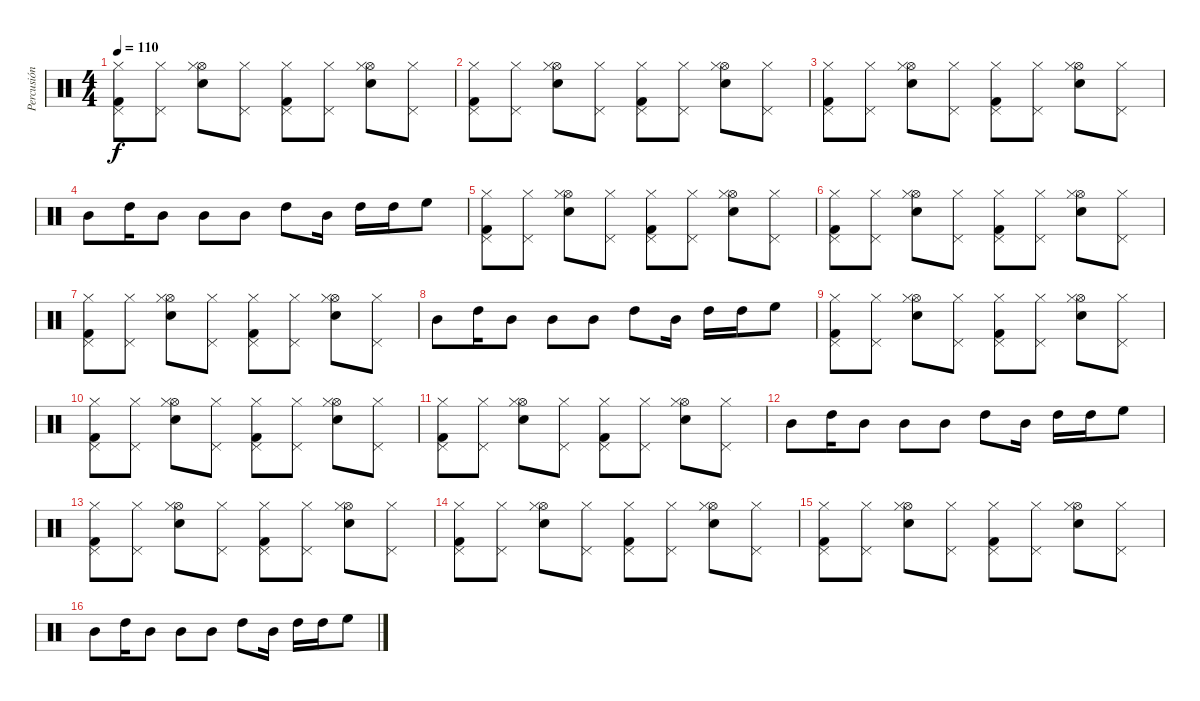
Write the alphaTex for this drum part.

\track ("Percusión" "Percusión") {instrument percussion}
\staff {score}
\articulation defaults
\ts (4 4)
\tempo 110
\clef neutral
\ks c
("Pedal Hi-Hat (hit)" "Hi-Hat (closed)" "Kick (hit) 2").8{dy f} ("Pedal Hi-Hat (hit)" "Hi-Hat (closed)").8 ("Hi-Hat (open)" "Hi-Hat (closed)" "Electric Snare (hit)").8 ("Pedal Hi-Hat (hit)" "Hi-Hat (closed)").8 ("Pedal Hi-Hat (hit)" "Hi-Hat (closed)" "Kick (hit) 2").8 ("Pedal Hi-Hat (hit)" "Hi-Hat (closed)").8 ("Hi-Hat (open)" "Hi-Hat (closed)" "Electric Snare (hit)").8 ("Pedal Hi-Hat (hit)" "Hi-Hat (closed)").8 |
("Pedal Hi-Hat (hit)" "Hi-Hat (closed)" "Kick (hit) 2").8 ("Pedal Hi-Hat (hit)" "Hi-Hat (closed)").8 ("Hi-Hat (open)" "Hi-Hat (closed)" "Electric Snare (hit)").8 ("Pedal Hi-Hat (hit)" "Hi-Hat (closed)").8 ("Pedal Hi-Hat (hit)" "Hi-Hat (closed)" "Kick (hit) 2").8 ("Pedal Hi-Hat (hit)" "Hi-Hat (closed)").8 ("Hi-Hat (open)" "Hi-Hat (closed)" "Electric Snare (hit)").8 ("Pedal Hi-Hat (hit)" "Hi-Hat (closed)").8 |
("Pedal Hi-Hat (hit)" "Hi-Hat (closed)" "Kick (hit) 2").8 ("Pedal Hi-Hat (hit)" "Hi-Hat (closed)").8 ("Hi-Hat (open)" "Hi-Hat (closed)" "Electric Snare (hit)").8 ("Pedal Hi-Hat (hit)" "Hi-Hat (closed)").8 ("Pedal Hi-Hat (hit)" "Hi-Hat (closed)" "Kick (hit) 2").8 ("Pedal Hi-Hat (hit)" "Hi-Hat (closed)").8 ("Hi-Hat (open)" "Hi-Hat (closed)" "Electric Snare (hit)").8 ("Pedal Hi-Hat (hit)" "Hi-Hat (closed)").8 |
"Mid Tom (hit)".8 "High Tom (hit)".16 "Mid Tom (hit)".8 "Mid Tom (hit)".8 "Mid Tom (hit)".8 "High Tom (hit)".8 "Mid Tom (hit)".16 "High Tom (hit)".16 "High Tom (hit)".16 "High Floor Tom (hit)".8 |
("Pedal Hi-Hat (hit)" "Hi-Hat (closed)" "Kick (hit) 2").8 ("Pedal Hi-Hat (hit)" "Hi-Hat (closed)").8 ("Hi-Hat (open)" "Hi-Hat (closed)" "Electric Snare (hit)").8 ("Pedal Hi-Hat (hit)" "Hi-Hat (closed)").8 ("Pedal Hi-Hat (hit)" "Hi-Hat (closed)" "Kick (hit) 2").8 ("Pedal Hi-Hat (hit)" "Hi-Hat (closed)").8 ("Hi-Hat (open)" "Hi-Hat (closed)" "Electric Snare (hit)").8 ("Pedal Hi-Hat (hit)" "Hi-Hat (closed)").8 |
("Pedal Hi-Hat (hit)" "Hi-Hat (closed)" "Kick (hit) 2").8 ("Pedal Hi-Hat (hit)" "Hi-Hat (closed)").8 ("Hi-Hat (open)" "Hi-Hat (closed)" "Electric Snare (hit)").8 ("Pedal Hi-Hat (hit)" "Hi-Hat (closed)").8 ("Pedal Hi-Hat (hit)" "Hi-Hat (closed)" "Kick (hit) 2").8 ("Pedal Hi-Hat (hit)" "Hi-Hat (closed)").8 ("Hi-Hat (open)" "Hi-Hat (closed)" "Electric Snare (hit)").8 ("Pedal Hi-Hat (hit)" "Hi-Hat (closed)").8 |
("Pedal Hi-Hat (hit)" "Hi-Hat (closed)" "Kick (hit) 2").8 ("Pedal Hi-Hat (hit)" "Hi-Hat (closed)").8 ("Hi-Hat (open)" "Hi-Hat (closed)" "Electric Snare (hit)").8 ("Pedal Hi-Hat (hit)" "Hi-Hat (closed)").8 ("Pedal Hi-Hat (hit)" "Hi-Hat (closed)" "Kick (hit) 2").8 ("Pedal Hi-Hat (hit)" "Hi-Hat (closed)").8 ("Hi-Hat (open)" "Hi-Hat (closed)" "Electric Snare (hit)").8 ("Pedal Hi-Hat (hit)" "Hi-Hat (closed)").8 |
"Mid Tom (hit)".8 "High Tom (hit)".16 "Mid Tom (hit)".8 "Mid Tom (hit)".8 "Mid Tom (hit)".8 "High Tom (hit)".8 "Mid Tom (hit)".16 "High Tom (hit)".16 "High Tom (hit)".16 "High Floor Tom (hit)".8 |
("Pedal Hi-Hat (hit)" "Hi-Hat (closed)" "Kick (hit) 2").8 ("Pedal Hi-Hat (hit)" "Hi-Hat (closed)").8 ("Hi-Hat (open)" "Hi-Hat (closed)" "Electric Snare (hit)").8 ("Pedal Hi-Hat (hit)" "Hi-Hat (closed)").8 ("Pedal Hi-Hat (hit)" "Hi-Hat (closed)" "Kick (hit) 2").8 ("Pedal Hi-Hat (hit)" "Hi-Hat (closed)").8 ("Hi-Hat (open)" "Hi-Hat (closed)" "Electric Snare (hit)").8 ("Pedal Hi-Hat (hit)" "Hi-Hat (closed)").8 |
("Pedal Hi-Hat (hit)" "Hi-Hat (closed)" "Kick (hit) 2").8 ("Pedal Hi-Hat (hit)" "Hi-Hat (closed)").8 ("Hi-Hat (open)" "Hi-Hat (closed)" "Electric Snare (hit)").8 ("Pedal Hi-Hat (hit)" "Hi-Hat (closed)").8 ("Pedal Hi-Hat (hit)" "Hi-Hat (closed)" "Kick (hit) 2").8 ("Pedal Hi-Hat (hit)" "Hi-Hat (closed)").8 ("Hi-Hat (open)" "Hi-Hat (closed)" "Electric Snare (hit)").8 ("Pedal Hi-Hat (hit)" "Hi-Hat (closed)").8 |
("Pedal Hi-Hat (hit)" "Hi-Hat (closed)" "Kick (hit) 2").8 ("Pedal Hi-Hat (hit)" "Hi-Hat (closed)").8 ("Hi-Hat (open)" "Hi-Hat (closed)" "Electric Snare (hit)").8 ("Pedal Hi-Hat (hit)" "Hi-Hat (closed)").8 ("Pedal Hi-Hat (hit)" "Hi-Hat (closed)" "Kick (hit) 2").8 ("Pedal Hi-Hat (hit)" "Hi-Hat (closed)").8 ("Hi-Hat (open)" "Hi-Hat (closed)" "Electric Snare (hit)").8 ("Pedal Hi-Hat (hit)" "Hi-Hat (closed)").8 |
"Mid Tom (hit)".8 "High Tom (hit)".16 "Mid Tom (hit)".8 "Mid Tom (hit)".8 "Mid Tom (hit)".8 "High Tom (hit)".8 "Mid Tom (hit)".16 "High Tom (hit)".16 "High Tom (hit)".16 "High Floor Tom (hit)".8 |
("Pedal Hi-Hat (hit)" "Hi-Hat (closed)" "Kick (hit) 2").8 ("Pedal Hi-Hat (hit)" "Hi-Hat (closed)").8 ("Hi-Hat (open)" "Hi-Hat (closed)" "Electric Snare (hit)").8 ("Pedal Hi-Hat (hit)" "Hi-Hat (closed)").8 ("Pedal Hi-Hat (hit)" "Hi-Hat (closed)" "Kick (hit) 2").8 ("Pedal Hi-Hat (hit)" "Hi-Hat (closed)").8 ("Hi-Hat (open)" "Hi-Hat (closed)" "Electric Snare (hit)").8 ("Pedal Hi-Hat (hit)" "Hi-Hat (closed)").8 |
("Pedal Hi-Hat (hit)" "Hi-Hat (closed)" "Kick (hit) 2").8 ("Pedal Hi-Hat (hit)" "Hi-Hat (closed)").8 ("Hi-Hat (open)" "Hi-Hat (closed)" "Electric Snare (hit)").8 ("Pedal Hi-Hat (hit)" "Hi-Hat (closed)").8 ("Pedal Hi-Hat (hit)" "Hi-Hat (closed)" "Kick (hit) 2").8 ("Pedal Hi-Hat (hit)" "Hi-Hat (closed)").8 ("Hi-Hat (open)" "Hi-Hat (closed)" "Electric Snare (hit)").8 ("Pedal Hi-Hat (hit)" "Hi-Hat (closed)").8 |
("Pedal Hi-Hat (hit)" "Hi-Hat (closed)" "Kick (hit) 2").8 ("Pedal Hi-Hat (hit)" "Hi-Hat (closed)").8 ("Hi-Hat (open)" "Hi-Hat (closed)" "Electric Snare (hit)").8 ("Pedal Hi-Hat (hit)" "Hi-Hat (closed)").8 ("Pedal Hi-Hat (hit)" "Hi-Hat (closed)" "Kick (hit) 2").8 ("Pedal Hi-Hat (hit)" "Hi-Hat (closed)").8 ("Hi-Hat (open)" "Hi-Hat (closed)" "Electric Snare (hit)").8 ("Pedal Hi-Hat (hit)" "Hi-Hat (closed)").8 |
"Mid Tom (hit)".8 "High Tom (hit)".16 "Mid Tom (hit)".8 "Mid Tom (hit)".8 "Mid Tom (hit)".8 "High Tom (hit)".8 "Mid Tom (hit)".16 "High Tom (hit)".16 "High Tom (hit)".16 "High Floor Tom (hit)".8
